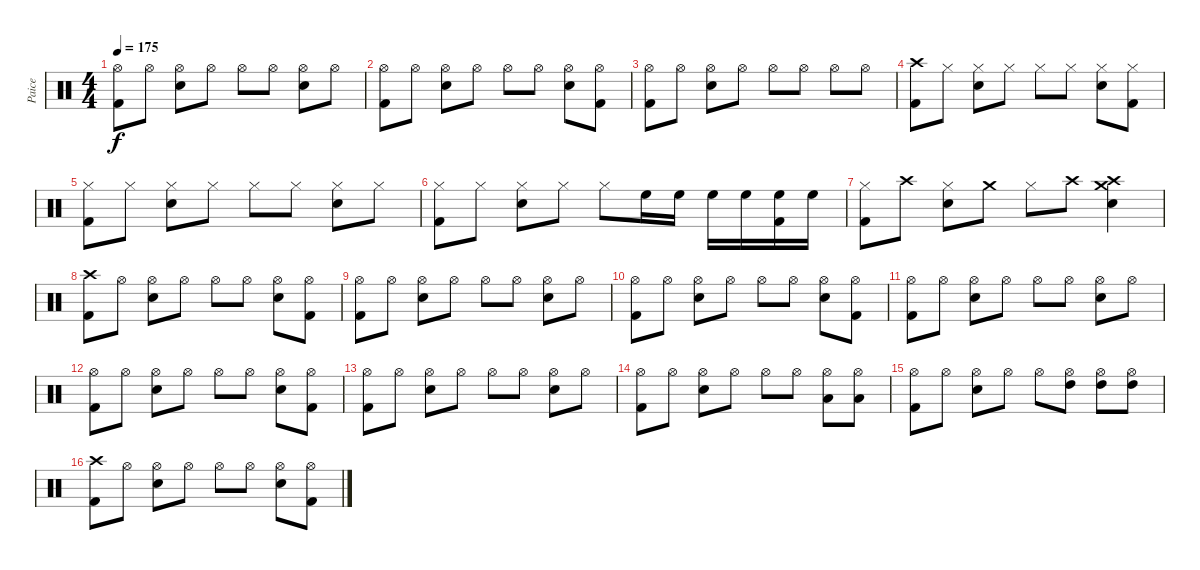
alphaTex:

\track ("Paice" "Paice") {instrument percussion}
\staff {score}
\articulation defaults
\ts (4 4)
\tempo 175
\clef neutral
\ks c
("Hi-Hat (open)" "Kick (hit) 2").8{dy f} "Hi-Hat (open)".8 ("Hi-Hat (open)" "Electric Snare (hit)").8 "Hi-Hat (open)".8 "Hi-Hat (open)".8 "Hi-Hat (open)".8 ("Hi-Hat (open)" "Electric Snare (hit)").8 "Hi-Hat (open)".8 |
("Hi-Hat (open)" "Kick (hit) 2").8 "Hi-Hat (open)".8 ("Hi-Hat (open)" "Electric Snare (hit)").8 "Hi-Hat (open)".8 "Hi-Hat (open)".8 "Hi-Hat (open)".8 ("Hi-Hat (open)" "Electric Snare (hit)").8 ("Hi-Hat (open)" "Kick (hit) 2").8 |
("Hi-Hat (open)" "Kick (hit) 2").8 "Hi-Hat (open)".8 ("Hi-Hat (open)" "Electric Snare (hit)").8 "Hi-Hat (open)".8 "Hi-Hat (open)".8 "Hi-Hat (open)".8 "Hi-Hat (open)".8 "Hi-Hat (open)".8 |
("Crash high (hit)" "Kick (hit) 2").8 "Hi-Hat (closed)".8 ("Hi-Hat (closed)" "Electric Snare (hit)").8 "Hi-Hat (closed)".8 "Hi-Hat (closed)".8 "Hi-Hat (closed)".8 ("Hi-Hat (closed)" "Electric Snare (hit)").8 ("Hi-Hat (closed)" "Kick (hit) 2").8 |
("Hi-Hat (closed)" "Kick (hit) 2").8 "Hi-Hat (closed)".8 ("Hi-Hat (closed)" "Electric Snare (hit)").8 "Hi-Hat (closed)".8 "Hi-Hat (closed)".8 "Hi-Hat (closed)".8 ("Hi-Hat (closed)" "Electric Snare (hit)").8 "Hi-Hat (closed)".8 |
("Hi-Hat (closed)" "Kick (hit) 2").8 "Hi-Hat (closed)".8 ("Hi-Hat (closed)" "Electric Snare (hit)").8 "Hi-Hat (closed)".8 "Hi-Hat (closed)".8 "High Floor Tom (hit)".16 "High Floor Tom (hit)".16 "High Floor Tom (hit)".16 "High Floor Tom (hit)".16 ("High Floor Tom (hit)" "Kick (hit) 2").16 "High Floor Tom (hit)".16 |
("Hi-Hat (closed)" "Kick (hit) 2").8 "Crash high (hit)".8 ("Hi-Hat (closed)" "Electric Snare (hit)").8 "Crash medium (hit)".8 "Hi-Hat (closed)".8 "Crash high (hit)".8 ("Crash high (hit)" "Crash medium (hit)" "Electric Snare (hit)").4 |
("Crash high (hit)" "Kick (hit) 2").8 "Hi-Hat (open)".8 ("Hi-Hat (open)" "Electric Snare (hit)").8 "Hi-Hat (open)".8 "Hi-Hat (open)".8 "Hi-Hat (open)".8 ("Hi-Hat (open)" "Electric Snare (hit)").8 ("Hi-Hat (open)" "Kick (hit) 2").8 |
("Hi-Hat (open)" "Kick (hit) 2").8 "Hi-Hat (open)".8 ("Hi-Hat (open)" "Electric Snare (hit)").8 "Hi-Hat (open)".8 "Hi-Hat (open)".8 "Hi-Hat (open)".8 ("Hi-Hat (open)" "Electric Snare (hit)").8 "Hi-Hat (open)".8 |
("Hi-Hat (open)" "Kick (hit) 2").8 "Hi-Hat (open)".8 ("Hi-Hat (open)" "Electric Snare (hit)").8 "Hi-Hat (open)".8 "Hi-Hat (open)".8 "Hi-Hat (open)".8 ("Hi-Hat (open)" "Electric Snare (hit)").8 ("Hi-Hat (open)" "Kick (hit) 2").8 |
("Hi-Hat (open)" "Kick (hit) 2").8 "Hi-Hat (open)".8 ("Hi-Hat (open)" "Electric Snare (hit)").8 "Hi-Hat (open)".8 "Hi-Hat (open)".8 "Hi-Hat (open)".8 ("Hi-Hat (open)" "Electric Snare (hit)").8 "Hi-Hat (open)".8 |
("Hi-Hat (open)" "Kick (hit) 2").8 "Hi-Hat (open)".8 ("Hi-Hat (open)" "Electric Snare (hit)").8 "Hi-Hat (open)".8 "Hi-Hat (open)".8 "Hi-Hat (open)".8 ("Hi-Hat (open)" "Electric Snare (hit)").8 ("Hi-Hat (open)" "Kick (hit) 2").8 |
("Hi-Hat (open)" "Kick (hit) 2").8 "Hi-Hat (open)".8 ("Hi-Hat (open)" "Electric Snare (hit)").8 "Hi-Hat (open)".8 "Hi-Hat (open)".8 "Hi-Hat (open)".8 ("Hi-Hat (open)" "Electric Snare (hit)").8 "Hi-Hat (open)".8 |
("Hi-Hat (open)" "Kick (hit) 2").8 "Hi-Hat (open)".8 ("Hi-Hat (open)" "Electric Snare (hit)").8 "Hi-Hat (open)".8 "Hi-Hat (open)".8 "Hi-Hat (open)".8 ("Hi-Hat (open)" "Low Tom (hit)").8 ("Hi-Hat (open)" "Low Tom (hit)").8 |
("Hi-Hat (open)" "Kick (hit) 2").8 "Hi-Hat (open)".8 ("Hi-Hat (open)" "Electric Snare (hit)").8 "Hi-Hat (open)".8 "Hi-Hat (open)".8 ("Hi-Hat (open)" "High Tom (hit)").8 ("Hi-Hat (open)" "High Tom (hit)").8 ("Hi-Hat (open)" "High Tom (hit)").8 |
("Crash high (hit)" "Kick (hit) 2").8 "Hi-Hat (open)".8 ("Hi-Hat (open)" "Electric Snare (hit)").8 "Hi-Hat (open)".8 "Hi-Hat (open)".8 "Hi-Hat (open)".8 ("Hi-Hat (open)" "Electric Snare (hit)").8 ("Hi-Hat (open)" "Kick (hit) 2").8
